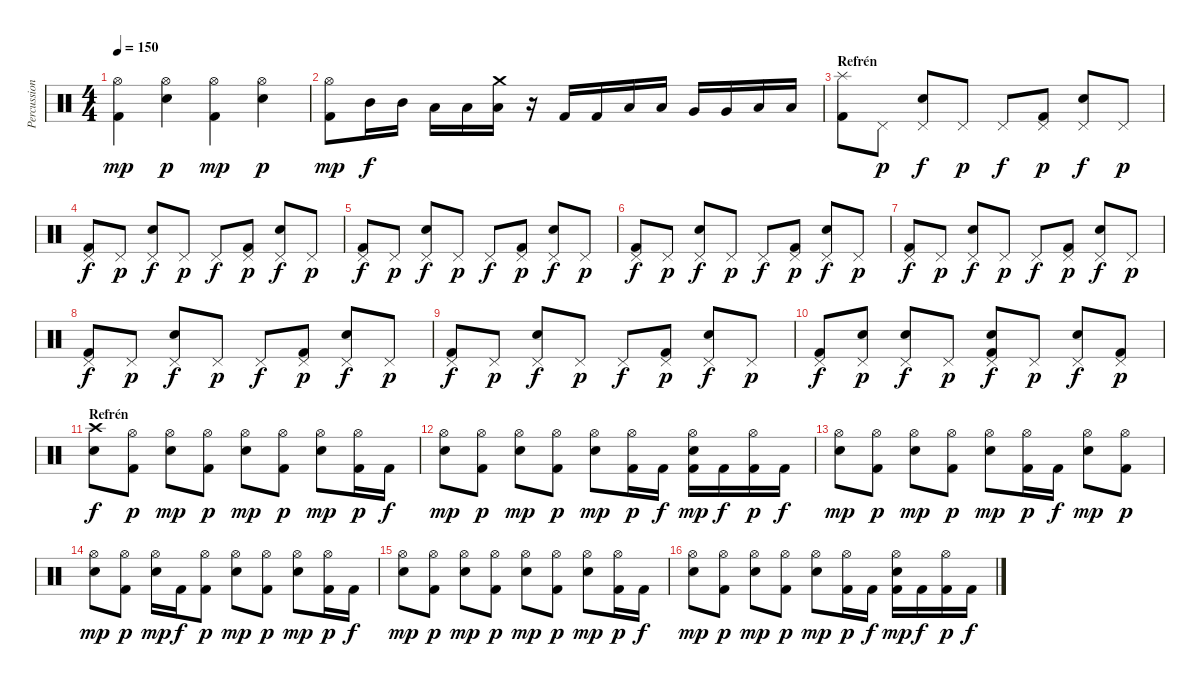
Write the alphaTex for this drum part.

\track ("Percussion" "Percussion") {instrument percussion}
\staff {score}
\articulation defaults
\ts (4 4)
\tempo 150
\clef neutral
\ks c
("Hi-Hat (open)" "Kick (hit) 2").4{dy mp} ("Hi-Hat (open)" "Snare (hit) 2").4{dy p} ("Hi-Hat (open)" "Kick (hit) 2").4{dy mp} ("Hi-Hat (open)" "Snare (hit) 2").4{dy p} |
("Hi-Hat (open)" "Kick (hit) 2").8{dy mp} "Mid Tom (hit)".16{dy f} "Mid Tom (hit)".16 "Low Tom (hit)".16 "Low Tom (hit)".16 ("Crash medium (hit)" "Low Tom (hit)").16 r.16 "Kick (hit) 2".16 "Kick (hit) 2".16 "Low Tom (hit)".16 "Low Tom (hit)".16 "Very Low Tom (hit)".16 "Very Low Tom (hit)".16 "Low Floor Tom (hit)".16 "Low Floor Tom (hit)".16 |
\section ("" "Refrén")
("Splash (hit)" "Kick (hit) 2").8 "Pedal Hi-Hat (hit)".8{dy p} ("Pedal Hi-Hat (hit)" "Snare (hit) 2").8{dy f} "Pedal Hi-Hat (hit)".8{dy p} "Pedal Hi-Hat (hit)".8{dy f} ("Pedal Hi-Hat (hit)" "Kick (hit) 2").8{dy p} ("Pedal Hi-Hat (hit)" "Snare (hit) 2").8{dy f} "Pedal Hi-Hat (hit)".8{dy p} |
("Pedal Hi-Hat (hit)" "Kick (hit) 2").8{dy f} "Pedal Hi-Hat (hit)".8{dy p} ("Pedal Hi-Hat (hit)" "Snare (hit) 2").8{dy f} "Pedal Hi-Hat (hit)".8{dy p} "Pedal Hi-Hat (hit)".8{dy f} ("Pedal Hi-Hat (hit)" "Kick (hit) 2").8{dy p} ("Pedal Hi-Hat (hit)" "Snare (hit) 2").8{dy f} "Pedal Hi-Hat (hit)".8{dy p} |
("Pedal Hi-Hat (hit)" "Kick (hit) 2").8{dy f} "Pedal Hi-Hat (hit)".8{dy p} ("Pedal Hi-Hat (hit)" "Snare (hit) 2").8{dy f} "Pedal Hi-Hat (hit)".8{dy p} "Pedal Hi-Hat (hit)".8{dy f} ("Pedal Hi-Hat (hit)" "Kick (hit) 2").8{dy p} ("Pedal Hi-Hat (hit)" "Snare (hit) 2").8{dy f} "Pedal Hi-Hat (hit)".8{dy p} |
("Pedal Hi-Hat (hit)" "Kick (hit) 2").8{dy f} "Pedal Hi-Hat (hit)".8{dy p} ("Pedal Hi-Hat (hit)" "Snare (hit) 2").8{dy f} "Pedal Hi-Hat (hit)".8{dy p} "Pedal Hi-Hat (hit)".8{dy f} ("Pedal Hi-Hat (hit)" "Kick (hit) 2").8{dy p} ("Pedal Hi-Hat (hit)" "Snare (hit) 2").8{dy f} "Pedal Hi-Hat (hit)".8{dy p} |
("Pedal Hi-Hat (hit)" "Kick (hit) 2").8{dy f} "Pedal Hi-Hat (hit)".8{dy p} ("Pedal Hi-Hat (hit)" "Snare (hit) 2").8{dy f} "Pedal Hi-Hat (hit)".8{dy p} "Pedal Hi-Hat (hit)".8{dy f} ("Pedal Hi-Hat (hit)" "Kick (hit) 2").8{dy p} ("Pedal Hi-Hat (hit)" "Snare (hit) 2").8{dy f} "Pedal Hi-Hat (hit)".8{dy p} |
("Pedal Hi-Hat (hit)" "Kick (hit) 2").8{dy f} "Pedal Hi-Hat (hit)".8{dy p} ("Pedal Hi-Hat (hit)" "Snare (hit) 2").8{dy f} "Pedal Hi-Hat (hit)".8{dy p} "Pedal Hi-Hat (hit)".8{dy f} ("Pedal Hi-Hat (hit)" "Kick (hit) 2").8{dy p} ("Pedal Hi-Hat (hit)" "Snare (hit) 2").8{dy f} "Pedal Hi-Hat (hit)".8{dy p} |
("Pedal Hi-Hat (hit)" "Kick (hit) 2").8{dy f} "Pedal Hi-Hat (hit)".8{dy p} ("Pedal Hi-Hat (hit)" "Snare (hit) 2").8{dy f} "Pedal Hi-Hat (hit)".8{dy p} "Pedal Hi-Hat (hit)".8{dy f} ("Pedal Hi-Hat (hit)" "Kick (hit) 2").8{dy p} ("Pedal Hi-Hat (hit)" "Snare (hit) 2").8{dy f} "Pedal Hi-Hat (hit)".8{dy p} |
("Pedal Hi-Hat (hit)" "Kick (hit) 2").8{dy f} ("Pedal Hi-Hat (hit)" "Snare (hit) 2").8{dy p} ("Pedal Hi-Hat (hit)" "Snare (hit) 2").8{dy f} "Pedal Hi-Hat (hit)".8{dy p} ("Pedal Hi-Hat (hit)" "Kick (hit) 2" "Snare (hit) 2").8{dy f} "Pedal Hi-Hat (hit)".8{dy p} ("Pedal Hi-Hat (hit)" "Snare (hit) 2").8{dy f} ("Pedal Hi-Hat (hit)" "Kick (hit) 2").8{dy p} |
\section ("" "Refrén")
("Crash high (hit)" "Snare (hit) 2").8{dy f} ("Hi-Hat (open)" "Kick (hit) 2").8{dy p} ("Hi-Hat (open)" "Snare (hit) 2").8{dy mp} ("Hi-Hat (open)" "Kick (hit) 2").8{dy p} ("Hi-Hat (open)" "Snare (hit) 2").8{dy mp} ("Hi-Hat (open)" "Kick (hit) 2").8{dy p} ("Hi-Hat (open)" "Snare (hit) 2").8{dy mp} ("Hi-Hat (open)" "Kick (hit) 2").16{dy p} "Kick (hit) 2".16{dy f} |
("Hi-Hat (open)" "Snare (hit) 2").8{dy mp} ("Hi-Hat (open)" "Kick (hit) 2").8{dy p} ("Hi-Hat (open)" "Snare (hit) 2").8{dy mp} ("Hi-Hat (open)" "Kick (hit) 2").8{dy p} ("Hi-Hat (open)" "Snare (hit) 2").8{dy mp} ("Hi-Hat (open)" "Kick (hit) 2").16{dy p} "Kick (hit) 2".16{dy f} ("Hi-Hat (open)" "Kick (hit) 2" "Snare (hit) 2").16{dy mp} "Kick (hit) 2".16{dy f} ("Hi-Hat (open)" "Kick (hit) 2").16{dy p} "Kick (hit) 2".16{dy f} |
("Hi-Hat (open)" "Snare (hit) 2").8{dy mp} ("Hi-Hat (open)" "Kick (hit) 2").8{dy p} ("Hi-Hat (open)" "Snare (hit) 2").8{dy mp} ("Hi-Hat (open)" "Kick (hit) 2").8{dy p} ("Hi-Hat (open)" "Snare (hit) 2").8{dy mp} ("Hi-Hat (open)" "Kick (hit) 2").16{dy p} "Kick (hit) 2".16{dy f} ("Hi-Hat (open)" "Snare (hit) 2").8{dy mp} ("Hi-Hat (open)" "Kick (hit) 2").8{dy p} |
("Hi-Hat (open)" "Snare (hit) 2").8{dy mp} ("Hi-Hat (open)" "Kick (hit) 2").8{dy p} ("Hi-Hat (open)" "Snare (hit) 2").16{dy mp} "Kick (hit) 2".16{dy f} ("Hi-Hat (open)" "Kick (hit) 2").8{dy p} ("Hi-Hat (open)" "Snare (hit) 2").8{dy mp} ("Hi-Hat (open)" "Kick (hit) 2").8{dy p} ("Hi-Hat (open)" "Snare (hit) 2").8{dy mp} ("Hi-Hat (open)" "Kick (hit) 2").16{dy p} "Kick (hit) 2".16{dy f} |
("Hi-Hat (open)" "Snare (hit) 2").8{dy mp} ("Hi-Hat (open)" "Kick (hit) 2").8{dy p} ("Hi-Hat (open)" "Snare (hit) 2").8{dy mp} ("Hi-Hat (open)" "Kick (hit) 2").8{dy p} ("Hi-Hat (open)" "Snare (hit) 2").8{dy mp} ("Hi-Hat (open)" "Kick (hit) 2").8{dy p} ("Hi-Hat (open)" "Snare (hit) 2").8{dy mp} ("Hi-Hat (open)" "Kick (hit) 2").16{dy p} "Kick (hit) 2".16{dy f} |
("Hi-Hat (open)" "Snare (hit) 2").8{dy mp} ("Hi-Hat (open)" "Kick (hit) 2").8{dy p} ("Hi-Hat (open)" "Snare (hit) 2").8{dy mp} ("Hi-Hat (open)" "Kick (hit) 2").8{dy p} ("Hi-Hat (open)" "Snare (hit) 2").8{dy mp} ("Hi-Hat (open)" "Kick (hit) 2").16{dy p} "Kick (hit) 2".16{dy f} ("Hi-Hat (open)" "Kick (hit) 2" "Snare (hit) 2").16{dy mp} "Kick (hit) 2".16{dy f} ("Hi-Hat (open)" "Kick (hit) 2").16{dy p} "Kick (hit) 2".16{dy f}
